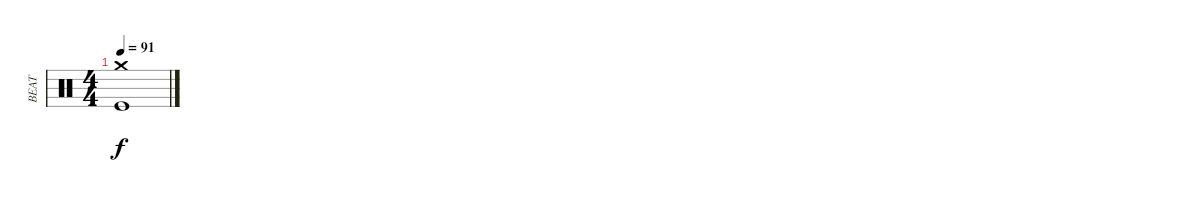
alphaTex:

\track ("BEAT" "BEAT") {instrument percussion}
\staff {score}
\articulation defaults
\ts (4 4)
\tempo 91
\clef neutral
\ks c
("Crash medium (hit)" "Kick (hit)").1{dy f}
